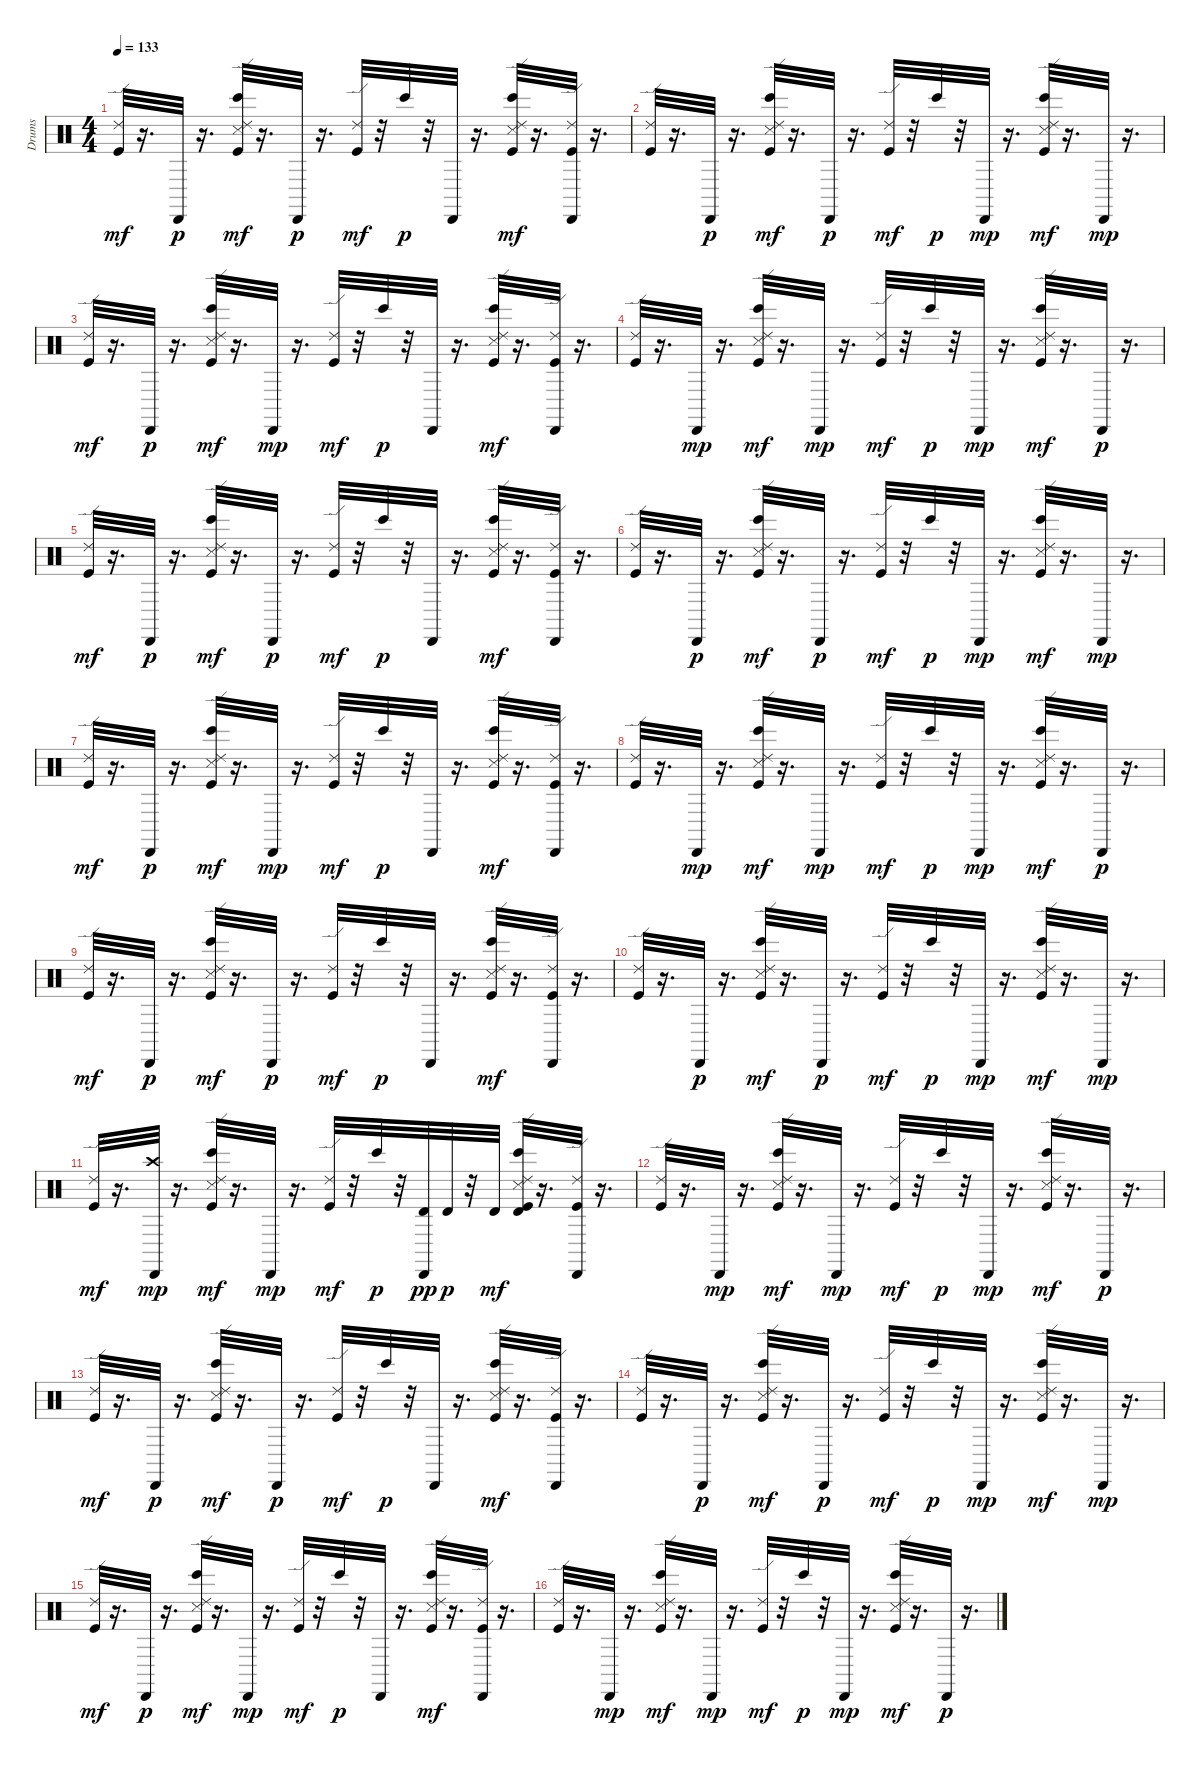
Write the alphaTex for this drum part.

\track ("Drums" "Drums") {instrument percussion}
\staff {score}
\articulation defaults
\ts (4 4)
\tempo 133
\clef neutral
\ks c
("Kick (hit)" "Ride (edge) 2").32{dy mf} r.16{d} "Cabasa (hit)".32{dy p} r.16{d} ("Kick (hit)" "Snare (side stick) 3" "Ride (edge) 2" "Bongo High (hit)").32{dy mf} r.16{d} "Cabasa (hit)".32{dy p} r.16{d} ("Kick (hit)" "Ride (edge) 2").32{dy mf} r.32 "Bongo High (hit)".32{dy p} r.32 "Cabasa (hit)".32 r.16{d} ("Kick (hit)" "Snare (side stick) 3" "Ride (edge) 2" "Bongo High (hit)").32{dy mf} r.16{d} ("Cabasa (hit)" "Kick (hit)" "Ride (edge) 2").32 r.16{d} |
("Kick (hit)" "Ride (edge) 2").32 r.16{d} "Cabasa (hit)".32{dy p} r.16{d} ("Kick (hit)" "Snare (side stick) 3" "Ride (edge) 2" "Bongo High (hit)").32{dy mf} r.16{d} "Cabasa (hit)".32{dy p} r.16{d} ("Kick (hit)" "Ride (edge) 2").32{dy mf} r.32 "Bongo High (hit)".32{dy p} r.32 "Cabasa (hit)".32{dy mp} r.16{d} ("Kick (hit)" "Snare (side stick) 3" "Ride (edge) 2" "Bongo High (hit)").32{dy mf} r.16{d} "Cabasa (hit)".32{dy mp} r.16{d} |
("Kick (hit)" "Ride (edge) 2").32{dy mf} r.16{d} "Cabasa (hit)".32{dy p} r.16{d} ("Kick (hit)" "Snare (side stick) 3" "Ride (edge) 2" "Bongo High (hit)").32{dy mf} r.16{d} "Cabasa (hit)".32{dy mp} r.16{d} ("Kick (hit)" "Ride (edge) 2").32{dy mf} r.32 "Bongo High (hit)".32{dy p} r.32 "Cabasa (hit)".32 r.16{d} ("Kick (hit)" "Snare (side stick) 3" "Ride (edge) 2" "Bongo High (hit)").32{dy mf} r.16{d} ("Cabasa (hit)" "Kick (hit)" "Ride (edge) 2").32 r.16{d} |
("Kick (hit)" "Ride (edge) 2").32 r.16{d} "Cabasa (hit)".32{dy mp} r.16{d} ("Kick (hit)" "Snare (side stick) 3" "Ride (edge) 2" "Bongo High (hit)").32{dy mf} r.16{d} "Cabasa (hit)".32{dy mp} r.16{d} ("Kick (hit)" "Ride (edge) 2").32{dy mf} r.32 "Bongo High (hit)".32{dy p} r.32 "Cabasa (hit)".32{dy mp} r.16{d} ("Kick (hit)" "Snare (side stick) 3" "Ride (edge) 2" "Bongo High (hit)").32{dy mf} r.16{d} "Cabasa (hit)".32{dy p} r.16{d} |
("Kick (hit)" "Ride (edge) 2").32{dy mf} r.16{d} "Cabasa (hit)".32{dy p} r.16{d} ("Kick (hit)" "Snare (side stick) 3" "Ride (edge) 2" "Bongo High (hit)").32{dy mf} r.16{d} "Cabasa (hit)".32{dy p} r.16{d} ("Kick (hit)" "Ride (edge) 2").32{dy mf} r.32 "Bongo High (hit)".32{dy p} r.32 "Cabasa (hit)".32 r.16{d} ("Kick (hit)" "Snare (side stick) 3" "Ride (edge) 2" "Bongo High (hit)").32{dy mf} r.16{d} ("Cabasa (hit)" "Kick (hit)" "Ride (edge) 2").32 r.16{d} |
("Kick (hit)" "Ride (edge) 2").32 r.16{d} "Cabasa (hit)".32{dy p} r.16{d} ("Kick (hit)" "Snare (side stick) 3" "Ride (edge) 2" "Bongo High (hit)").32{dy mf} r.16{d} "Cabasa (hit)".32{dy p} r.16{d} ("Kick (hit)" "Ride (edge) 2").32{dy mf} r.32 "Bongo High (hit)".32{dy p} r.32 "Cabasa (hit)".32{dy mp} r.16{d} ("Kick (hit)" "Snare (side stick) 3" "Ride (edge) 2" "Bongo High (hit)").32{dy mf} r.16{d} "Cabasa (hit)".32{dy mp} r.16{d} |
("Kick (hit)" "Ride (edge) 2").32{dy mf} r.16{d} "Cabasa (hit)".32{dy p} r.16{d} ("Kick (hit)" "Snare (side stick) 3" "Ride (edge) 2" "Bongo High (hit)").32{dy mf} r.16{d} "Cabasa (hit)".32{dy mp} r.16{d} ("Kick (hit)" "Ride (edge) 2").32{dy mf} r.32 "Bongo High (hit)".32{dy p} r.32 "Cabasa (hit)".32 r.16{d} ("Kick (hit)" "Snare (side stick) 3" "Ride (edge) 2" "Bongo High (hit)").32{dy mf} r.16{d} ("Cabasa (hit)" "Kick (hit)" "Ride (edge) 2").32 r.16{d} |
("Kick (hit)" "Ride (edge) 2").32 r.16{d} "Cabasa (hit)".32{dy mp} r.16{d} ("Kick (hit)" "Snare (side stick) 3" "Ride (edge) 2" "Bongo High (hit)").32{dy mf} r.16{d} "Cabasa (hit)".32{dy mp} r.16{d} ("Kick (hit)" "Ride (edge) 2").32{dy mf} r.32 "Bongo High (hit)".32{dy p} r.32 "Cabasa (hit)".32{dy mp} r.16{d} ("Kick (hit)" "Snare (side stick) 3" "Ride (edge) 2" "Bongo High (hit)").32{dy mf} r.16{d} "Cabasa (hit)".32{dy p} r.16{d} |
("Kick (hit)" "Ride (edge) 2").32{dy mf} r.16{d} "Cabasa (hit)".32{dy p} r.16{d} ("Kick (hit)" "Snare (side stick) 3" "Ride (edge) 2" "Bongo High (hit)").32{dy mf} r.16{d} "Cabasa (hit)".32{dy p} r.16{d} ("Kick (hit)" "Ride (edge) 2").32{dy mf} r.32 "Bongo High (hit)".32{dy p} r.32 "Cabasa (hit)".32 r.16{d} ("Kick (hit)" "Snare (side stick) 3" "Ride (edge) 2" "Bongo High (hit)").32{dy mf} r.16{d} ("Cabasa (hit)" "Kick (hit)" "Ride (edge) 2").32 r.16{d} |
("Kick (hit)" "Ride (edge) 2").32 r.16{d} "Cabasa (hit)".32{dy p} r.16{d} ("Kick (hit)" "Snare (side stick) 3" "Ride (edge) 2" "Bongo High (hit)").32{dy mf} r.16{d} "Cabasa (hit)".32{dy p} r.16{d} ("Kick (hit)" "Ride (edge) 2").32{dy mf} r.32 "Bongo High (hit)".32{dy p} r.32 "Cabasa (hit)".32{dy mp} r.16{d} ("Kick (hit)" "Snare (side stick) 3" "Ride (edge) 2" "Bongo High (hit)").32{dy mf} r.16{d} "Cabasa (hit)".32{dy mp} r.16{d} |
("Kick (hit)" "Ride (edge) 2").32{dy mf} r.16{d} ("Cabasa (hit)" "Crash high (hit)").32{dy mp} r.16{d} ("Kick (hit)" "Snare (side stick) 3" "Ride (edge) 2" "Bongo High (hit)").32{dy mf} r.16{d} "Cabasa (hit)".32{dy mp} r.16{d} ("Kick (hit)" "Ride (edge) 2").32{dy mf} r.32 "Bongo High (hit)".32{dy p} r.32 ("Cabasa (hit)" "Timbale high (hit)").32{dy pp} "Timbale high (hit)".32{dy p} r.32 "Timbale high (hit)".32{dy mf} ("Kick (hit)" "Snare (side stick) 3" "Ride (edge) 2" "Bongo High (hit)" "Timbale high (hit)").32 r.16{d} ("Cabasa (hit)" "Kick (hit)" "Ride (edge) 2").32 r.16{d} |
("Kick (hit)" "Ride (edge) 2").32 r.16{d} "Cabasa (hit)".32{dy mp} r.16{d} ("Kick (hit)" "Snare (side stick) 3" "Ride (edge) 2" "Bongo High (hit)").32{dy mf} r.16{d} "Cabasa (hit)".32{dy mp} r.16{d} ("Kick (hit)" "Ride (edge) 2").32{dy mf} r.32 "Bongo High (hit)".32{dy p} r.32 "Cabasa (hit)".32{dy mp} r.16{d} ("Kick (hit)" "Snare (side stick) 3" "Ride (edge) 2" "Bongo High (hit)").32{dy mf} r.16{d} "Cabasa (hit)".32{dy p} r.16{d} |
("Kick (hit)" "Ride (edge) 2").32{dy mf} r.16{d} "Cabasa (hit)".32{dy p} r.16{d} ("Kick (hit)" "Snare (side stick) 3" "Ride (edge) 2" "Bongo High (hit)").32{dy mf} r.16{d} "Cabasa (hit)".32{dy p} r.16{d} ("Kick (hit)" "Ride (edge) 2").32{dy mf} r.32 "Bongo High (hit)".32{dy p} r.32 "Cabasa (hit)".32 r.16{d} ("Kick (hit)" "Snare (side stick) 3" "Ride (edge) 2" "Bongo High (hit)").32{dy mf} r.16{d} ("Cabasa (hit)" "Kick (hit)" "Ride (edge) 2").32 r.16{d} |
("Kick (hit)" "Ride (edge) 2").32 r.16{d} "Cabasa (hit)".32{dy p} r.16{d} ("Kick (hit)" "Snare (side stick) 3" "Ride (edge) 2" "Bongo High (hit)").32{dy mf} r.16{d} "Cabasa (hit)".32{dy p} r.16{d} ("Kick (hit)" "Ride (edge) 2").32{dy mf} r.32 "Bongo High (hit)".32{dy p} r.32 "Cabasa (hit)".32{dy mp} r.16{d} ("Kick (hit)" "Snare (side stick) 3" "Ride (edge) 2" "Bongo High (hit)").32{dy mf} r.16{d} "Cabasa (hit)".32{dy mp} r.16{d} |
("Kick (hit)" "Ride (edge) 2").32{dy mf} r.16{d} "Cabasa (hit)".32{dy p} r.16{d} ("Kick (hit)" "Snare (side stick) 3" "Ride (edge) 2" "Bongo High (hit)").32{dy mf} r.16{d} "Cabasa (hit)".32{dy mp} r.16{d} ("Kick (hit)" "Ride (edge) 2").32{dy mf} r.32 "Bongo High (hit)".32{dy p} r.32 "Cabasa (hit)".32 r.16{d} ("Kick (hit)" "Snare (side stick) 3" "Ride (edge) 2" "Bongo High (hit)").32{dy mf} r.16{d} ("Cabasa (hit)" "Kick (hit)" "Ride (edge) 2").32 r.16{d} |
("Kick (hit)" "Ride (edge) 2").32 r.16{d} "Cabasa (hit)".32{dy mp} r.16{d} ("Kick (hit)" "Snare (side stick) 3" "Ride (edge) 2" "Bongo High (hit)").32{dy mf} r.16{d} "Cabasa (hit)".32{dy mp} r.16{d} ("Kick (hit)" "Ride (edge) 2").32{dy mf} r.32 "Bongo High (hit)".32{dy p} r.32 "Cabasa (hit)".32{dy mp} r.16{d} ("Kick (hit)" "Snare (side stick) 3" "Ride (edge) 2" "Bongo High (hit)").32{dy mf} r.16{d} "Cabasa (hit)".32{dy p} r.16{d}
